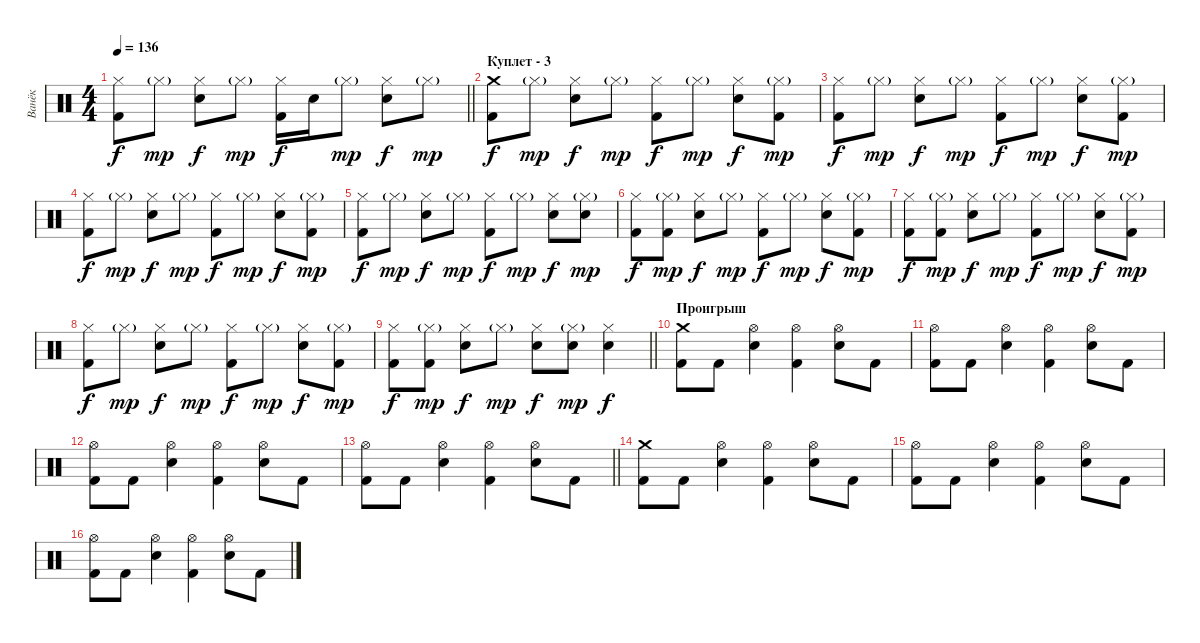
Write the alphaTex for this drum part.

\track ("Ванёк" "Ванёк") {instrument percussion}
\staff {score}
\articulation defaults
\ts (4 4)
\tempo 136
\clef neutral
\barLineRight lightlight
\ks c
("Hi-Hat (closed)" "Kick (hit) 2").8{dy f} "Hi-Hat (closed)"{g}.8{dy mp} ("Hi-Hat (closed)" "Snare (hit) 2").8{dy f} "Hi-Hat (closed)"{g}.8{dy mp} ("Hi-Hat (closed)" "Kick (hit) 2").16{dy f} "Snare (hit) 2".16 "Hi-Hat (closed)"{g}.8{dy mp} ("Hi-Hat (closed)" "Snare (hit) 2").8{dy f} "Hi-Hat (closed)"{g}.8{dy mp} |
\section ("" "Куплет - 3")
("Crash medium (hit)" "Kick (hit) 2").8{dy f} "Hi-Hat (closed)"{g}.8{dy mp} ("Hi-Hat (closed)" "Snare (hit) 2").8{dy f} "Hi-Hat (closed)"{g}.8{dy mp} ("Hi-Hat (closed)" "Kick (hit) 2").8{dy f} "Hi-Hat (closed)"{g}.8{dy mp} ("Hi-Hat (closed)" "Snare (hit) 2").8{dy f} ("Hi-Hat (closed)"{g} "Kick (hit) 2").8{dy mp} |
("Hi-Hat (closed)" "Kick (hit) 2").8{dy f} "Hi-Hat (closed)"{g}.8{dy mp} ("Hi-Hat (closed)" "Snare (hit) 2").8{dy f} "Hi-Hat (closed)"{g}.8{dy mp} ("Hi-Hat (closed)" "Kick (hit) 2").8{dy f} "Hi-Hat (closed)"{g}.8{dy mp} ("Hi-Hat (closed)" "Snare (hit) 2").8{dy f} ("Hi-Hat (closed)"{g} "Kick (hit) 2").8{dy mp} |
("Hi-Hat (closed)" "Kick (hit) 2").8{dy f} "Hi-Hat (closed)"{g}.8{dy mp} ("Hi-Hat (closed)" "Snare (hit) 2").8{dy f} "Hi-Hat (closed)"{g}.8{dy mp} ("Hi-Hat (closed)" "Kick (hit) 2").8{dy f} "Hi-Hat (closed)"{g}.8{dy mp} ("Hi-Hat (closed)" "Snare (hit) 2").8{dy f} ("Hi-Hat (closed)"{g} "Kick (hit) 2").8{dy mp} |
("Hi-Hat (closed)" "Kick (hit) 2").8{dy f} "Hi-Hat (closed)"{g}.8{dy mp} ("Hi-Hat (closed)" "Snare (hit) 2").8{dy f} "Hi-Hat (closed)"{g}.8{dy mp} ("Hi-Hat (closed)" "Kick (hit) 2").8{dy f} "Hi-Hat (closed)"{g}.8{dy mp} ("Hi-Hat (closed)" "Snare (hit) 2").8{dy f} ("Hi-Hat (closed)"{g} "Snare (hit) 2").8{dy mp} |
("Hi-Hat (closed)" "Kick (hit) 2").8{dy f} ("Hi-Hat (closed)"{g} "Kick (hit) 2").8{dy mp} ("Hi-Hat (closed)" "Snare (hit) 2").8{dy f} "Hi-Hat (closed)"{g}.8{dy mp} ("Hi-Hat (closed)" "Kick (hit) 2").8{dy f} "Hi-Hat (closed)"{g}.8{dy mp} ("Hi-Hat (closed)" "Snare (hit) 2").8{dy f} ("Hi-Hat (closed)"{g} "Kick (hit) 2").8{dy mp} |
("Hi-Hat (closed)" "Kick (hit) 2").8{dy f} ("Hi-Hat (closed)"{g} "Kick (hit) 2").8{dy mp} ("Hi-Hat (closed)" "Snare (hit) 2").8{dy f} "Hi-Hat (closed)"{g}.8{dy mp} ("Hi-Hat (closed)" "Kick (hit) 2").8{dy f} "Hi-Hat (closed)"{g}.8{dy mp} ("Hi-Hat (closed)" "Snare (hit) 2").8{dy f} ("Hi-Hat (closed)"{g} "Kick (hit) 2").8{dy mp} |
("Hi-Hat (closed)" "Kick (hit) 2").8{dy f} "Hi-Hat (closed)"{g}.8{dy mp} ("Hi-Hat (closed)" "Snare (hit) 2").8{dy f} "Hi-Hat (closed)"{g}.8{dy mp} ("Hi-Hat (closed)" "Kick (hit) 2").8{dy f} "Hi-Hat (closed)"{g}.8{dy mp} ("Hi-Hat (closed)" "Snare (hit) 2").8{dy f} ("Hi-Hat (closed)"{g} "Kick (hit) 2").8{dy mp} |
\barLineRight lightlight
("Hi-Hat (closed)" "Kick (hit) 2").8{dy f} ("Hi-Hat (closed)"{g} "Kick (hit) 2").8{dy mp} ("Hi-Hat (closed)" "Snare (hit) 2").8{dy f} "Hi-Hat (closed)"{g}.8{dy mp} ("Hi-Hat (closed)" "Snare (hit) 2").8{dy f} ("Hi-Hat (closed)"{g} "Snare (hit) 2").8{dy mp} ("Hi-Hat (closed)" "Snare (hit) 2").4{dy f} |
\section ("" "Проигрыш")
("Crash medium (hit)" "Kick (hit) 2").8 "Kick (hit) 2".8 ("Hi-Hat (open)" "Snare (hit) 2").4 ("Hi-Hat (open)" "Kick (hit) 2").4 ("Hi-Hat (open)" "Snare (hit) 2").8 "Kick (hit) 2".8 |
("Hi-Hat (open)" "Kick (hit) 2").8 "Kick (hit) 2".8 ("Hi-Hat (open)" "Snare (hit) 2").4 ("Hi-Hat (open)" "Kick (hit) 2").4 ("Hi-Hat (open)" "Snare (hit) 2").8 "Kick (hit) 2".8 |
("Hi-Hat (open)" "Kick (hit) 2").8 "Kick (hit) 2".8 ("Hi-Hat (open)" "Snare (hit) 2").4 ("Hi-Hat (open)" "Kick (hit) 2").4 ("Hi-Hat (open)" "Snare (hit) 2").8 "Kick (hit) 2".8 |
\barLineRight lightlight
("Hi-Hat (open)" "Kick (hit) 2").8 "Kick (hit) 2".8 ("Hi-Hat (open)" "Snare (hit) 2").4 ("Hi-Hat (open)" "Kick (hit) 2").4 ("Hi-Hat (open)" "Snare (hit) 2").8 "Kick (hit) 2".8 |
("Crash medium (hit)" "Kick (hit) 2").8 "Kick (hit) 2".8 ("Hi-Hat (open)" "Snare (hit) 2").4 ("Hi-Hat (open)" "Kick (hit) 2").4 ("Hi-Hat (open)" "Snare (hit) 2").8 "Kick (hit) 2".8 |
("Hi-Hat (open)" "Kick (hit) 2").8 "Kick (hit) 2".8 ("Hi-Hat (open)" "Snare (hit) 2").4 ("Hi-Hat (open)" "Kick (hit) 2").4 ("Hi-Hat (open)" "Snare (hit) 2").8 "Kick (hit) 2".8 |
("Hi-Hat (open)" "Kick (hit) 2").8 "Kick (hit) 2".8 ("Hi-Hat (open)" "Snare (hit) 2").4 ("Hi-Hat (open)" "Kick (hit) 2").4 ("Hi-Hat (open)" "Snare (hit) 2").8 "Kick (hit) 2".8
